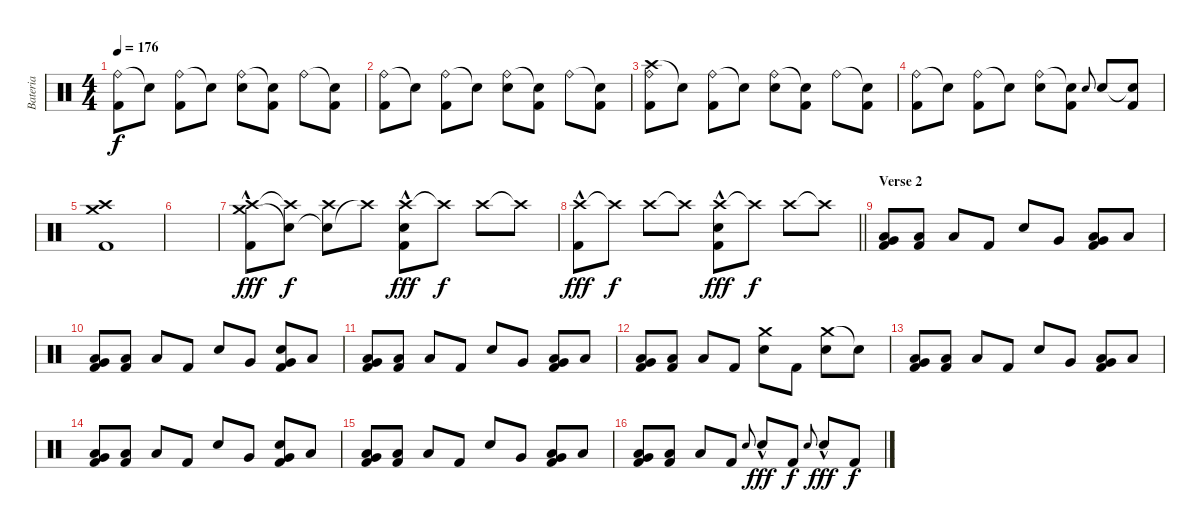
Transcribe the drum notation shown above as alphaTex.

\track ("Bateria" "Bateria") {instrument percussion}
\staff {score}
\articulation defaults
\ts (4 4)
\tempo 176
\clef neutral
\ks c
("Ride (bell)" "Kick (hit) 2").8{dy f} "Snare (hit)"{t}.8 ("Ride (bell)" "Kick (hit) 2").8 "Snare (hit)"{t}.8 ("Ride (bell)" "Electric Snare (hit)").8 ("Snare (hit)"{t} "Kick (hit) 2").8 "Ride (bell)".8 ("Snare (hit)"{t} "Kick (hit) 2").8 |
("Ride (bell)" "Kick (hit) 2").8 "Snare (hit)"{t}.8 ("Ride (bell)" "Kick (hit) 2").8 "Snare (hit)"{t}.8 ("Ride (bell)" "Electric Snare (hit)").8 ("Snare (hit)"{t} "Kick (hit) 2").8 "Ride (bell)".8 ("Snare (hit)"{t} "Kick (hit) 2").8 |
("Crash high (hit)" "Ride (bell)" "Kick (hit) 2").8 "Snare (hit)"{t}.8 ("Ride (bell)" "Kick (hit) 2").8 "Snare (hit)"{t}.8 ("Ride (bell)" "Electric Snare (hit)").8 ("Snare (hit)"{t} "Kick (hit) 2").8 "Ride (bell)".8 ("Snare (hit)"{t} "Kick (hit) 2").8 |
("Ride (bell)" "Kick (hit) 2").8 "Snare (hit)"{t}.8 ("Ride (bell)" "Kick (hit) 2").8 "Snare (hit)"{t}.8 ("Ride (bell)" "Electric Snare (hit)").8 ("Snare (hit)"{t} "Kick (hit) 2").8 "Electric Snare (hit)".8{gr onbeat} "Electric Snare (hit)".8 ("Snare (hit)"{t} "Kick (hit) 2").8 |
("Crash medium (hit)" "Crash high (hit)" "Kick (hit) 2").1 |
|
("Crash medium (hit)" "Crash high (hit)" "Kick (hit) 2"{hac}).8{dy fff} ("Snare (hit)"{t} "Crash high (hit)"{t}).8{dy f} ("Snare (hit)"{t} "Crash high (hit)").8 "Crash high (hit)"{t}.8 ("Crash high (hit)" "Electric Snare (hit)"{hac} "Kick (hit) 2"{hac}).8{dy fff} "Crash high (hit)"{t}.8{dy f} "Crash high (hit)".8 "Crash high (hit)"{t}.8 |
\barLineRight lightlight
("Crash high (hit)" "Kick (hit) 2"{hac}).8{dy fff} "Crash high (hit)"{t}.8{dy f} "Crash high (hit)".8 "Crash high (hit)"{t}.8 ("Crash high (hit)" "Electric Snare (hit)"{hac} "Kick (hit) 2"{hac}).8{dy fff} "Crash high (hit)"{t}.8{dy f} "Crash high (hit)".8 "Crash high (hit)"{t}.8 |
\section ("" "Verse 2")
("Low Floor Tom (hit)" "Very Low Tom (hit)" "Kick (hit) 2").8 ("Low Floor Tom (hit)" "Kick (hit) 2").8 "Low Floor Tom (hit)".8 "Kick (hit) 2".8 "Electric Snare (hit)".8 "Very Low Tom (hit)".8 ("Low Floor Tom (hit)" "Very Low Tom (hit)" "Kick (hit) 2").8 "Low Floor Tom (hit)".8 |
("Low Floor Tom (hit)" "Very Low Tom (hit)" "Kick (hit) 2").8 ("Low Floor Tom (hit)" "Kick (hit) 2").8 "Low Floor Tom (hit)".8 "Kick (hit) 2".8 "Electric Snare (hit)".8 "Very Low Tom (hit)".8 ("Electric Snare (hit)" "Very Low Tom (hit)" "Kick (hit) 2").8 "Low Floor Tom (hit)".8 |
("Low Floor Tom (hit)" "Very Low Tom (hit)" "Kick (hit) 2").8 ("Low Floor Tom (hit)" "Kick (hit) 2").8 "Low Floor Tom (hit)".8 "Kick (hit) 2".8 "Electric Snare (hit)".8 "Very Low Tom (hit)".8 ("Low Floor Tom (hit)" "Very Low Tom (hit)" "Kick (hit) 2").8 "Low Floor Tom (hit)".8 |
("Low Floor Tom (hit)" "Very Low Tom (hit)" "Kick (hit) 2").8 ("Low Floor Tom (hit)" "Kick (hit) 2").8 "Low Floor Tom (hit)".8 "Kick (hit) 2".8 ("Crash medium (hit)" "Electric Snare (hit)").8 "Kick (hit) 2".8 ("Crash medium (hit)" "Electric Snare (hit)").8 "Snare (hit)"{t}.8 |
("Low Floor Tom (hit)" "Very Low Tom (hit)" "Kick (hit) 2").8 ("Low Floor Tom (hit)" "Kick (hit) 2").8 "Low Floor Tom (hit)".8 "Kick (hit) 2".8 "Electric Snare (hit)".8 "Very Low Tom (hit)".8 ("Low Floor Tom (hit)" "Very Low Tom (hit)" "Kick (hit) 2").8 "Low Floor Tom (hit)".8 |
("Low Floor Tom (hit)" "Very Low Tom (hit)" "Kick (hit) 2").8 ("Low Floor Tom (hit)" "Kick (hit) 2").8 "Low Floor Tom (hit)".8 "Kick (hit) 2".8 "Electric Snare (hit)".8 "Very Low Tom (hit)".8 ("Electric Snare (hit)" "Very Low Tom (hit)" "Kick (hit) 2").8 "Low Floor Tom (hit)".8 |
("Low Floor Tom (hit)" "Very Low Tom (hit)" "Kick (hit) 2").8 ("Low Floor Tom (hit)" "Kick (hit) 2").8 "Low Floor Tom (hit)".8 "Kick (hit) 2".8 "Electric Snare (hit)".8 "Very Low Tom (hit)".8 ("Low Floor Tom (hit)" "Very Low Tom (hit)" "Kick (hit) 2").8 "Low Floor Tom (hit)".8 |
("Low Floor Tom (hit)" "Very Low Tom (hit)" "Kick (hit) 2").8 ("Low Floor Tom (hit)" "Kick (hit) 2").8 "Low Floor Tom (hit)".8 "Kick (hit) 2".8 "Electric Snare (hit)".8{gr onbeat} "Electric Snare (hit)"{hac}.8{dy fff} "Kick (hit) 2".8{dy f} "Electric Snare (hit)".8{gr onbeat} "Electric Snare (hit)"{hac}.8{dy fff} "Kick (hit) 2".8{dy f}
